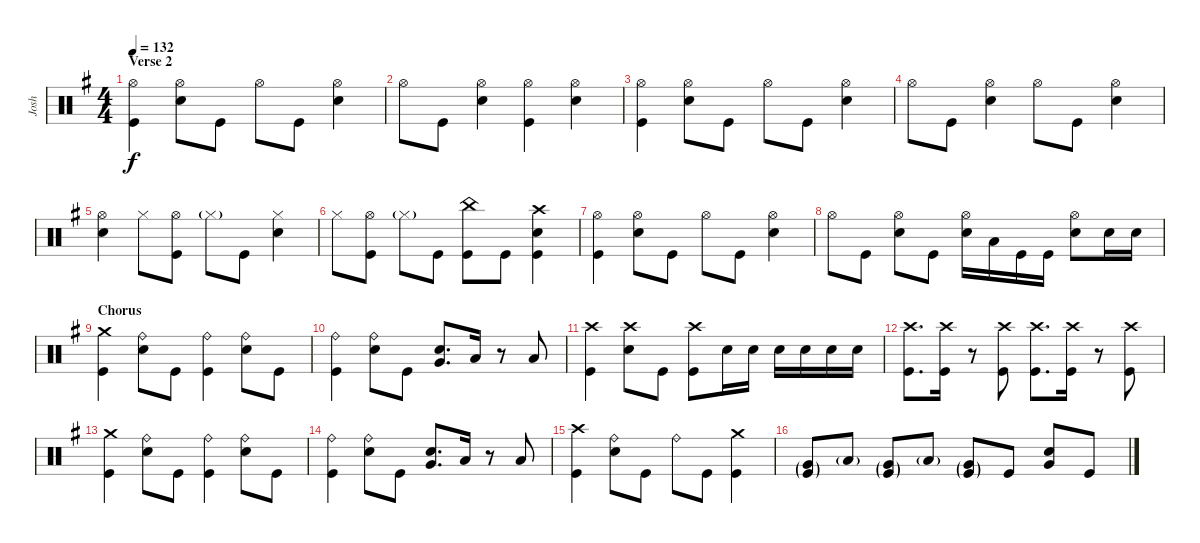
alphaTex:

\track ("Josh" "Josh") {instrument percussion}
\staff {score}
\articulation defaults
\ts (4 4)
\section ("" "Verse 2")
\tempo 132
\clef neutral
\ks g
("Kick (hit)" "Hi-Hat (open)").4{dy f} ("Snare (hit) 2" "Hi-Hat (open)").8 "Kick (hit)".8 "Hi-Hat (open)".8 "Kick (hit)".8 ("Hi-Hat (open)" "Snare (hit) 2").4 |
"Hi-Hat (open)".8 "Kick (hit)".8 ("Snare (hit) 2" "Hi-Hat (open)").4 ("Kick (hit)" "Hi-Hat (open)").4 ("Snare (hit) 2" "Hi-Hat (open)").4 |
("Kick (hit)" "Hi-Hat (open)").4 ("Snare (hit) 2" "Hi-Hat (open)").8 "Kick (hit)".8 "Hi-Hat (open)".8 "Kick (hit)".8 ("Hi-Hat (open)" "Snare (hit) 2").4 |
"Hi-Hat (open)".8 "Kick (hit)".8 ("Snare (hit) 2" "Hi-Hat (open)").4 "Hi-Hat (open)".8 "Kick (hit)".8 ("Snare (hit) 2" "Hi-Hat (open)").4 |
("Hi-Hat (open)" "Snare (hit) 2").4 "Hi-Hat (closed)".8 ("Kick (hit)" "Hi-Hat (open)").8 "Hi-Hat (closed)"{g}.8 "Kick (hit)".8 ("Hi-Hat (closed)" "Snare (hit) 2").4 |
"Hi-Hat (closed)".8 ("Kick (hit)" "Hi-Hat (open)").8 "Hi-Hat (closed)"{g}.8 "Kick (hit)".8 ("Kick (hit)" "China (hit)").8 "Kick (hit)".8 ("Kick (hit)" "Snare (hit) 2" "Crash high (hit)").4 |
("Kick (hit)" "Hi-Hat (open)").4 ("Snare (hit) 2" "Hi-Hat (open)").8 "Kick (hit)".8 "Hi-Hat (open)".8 "Kick (hit)".8 ("Hi-Hat (open)" "Snare (hit) 2").4 |
"Hi-Hat (open)".8 "Kick (hit)".8 ("Snare (hit) 2" "Hi-Hat (open)").8 "Kick (hit)".8 ("Hi-Hat (open)" "Snare (hit) 2").16 "Low Tom (hit)".16 "Kick (hit)".16 "Kick (hit)".16 ("Snare (hit) 2" "Hi-Hat (open)").8 "Snare (hit) 2".16 "Snare (hit) 2".16 |
\section ("" "Chorus")
("Kick (hit)" "Crash medium (hit)").4 ("Snare (hit) 2" "Ride (bell)").8 "Kick (hit)".8 ("Kick (hit)" "Ride (bell)").4 ("Snare (hit) 2" "Ride (bell)").8 "Kick (hit)".8 |
("Kick (hit)" "Ride (bell)").4 ("Snare (hit) 2" "Ride (bell)").8 "Kick (hit)".8 ("Snare (hit) 2" "Very Low Tom (hit)").8{d} "Low Tom (hit)".16 r.8 "Low Floor Tom (hit)".8 |
("Kick (hit)" "Crash high (hit)").4 ("Snare (hit) 2" "Crash high (hit)").8 "Kick (hit)".8 ("Kick (hit)" "Crash high (hit)").8 "Snare (hit) 2".16 "Snare (hit) 2".16 "Snare (hit) 2".16 "Snare (hit) 2".16 "Snare (hit) 2".16 "Snare (hit) 2".16 |
("Kick (hit)" "Crash high (hit)").8{d} ("Kick (hit)" "Crash high (hit)").16 r.8 ("Kick (hit)" "Crash high (hit)").8 ("Kick (hit)" "Crash high (hit)").8{d} ("Kick (hit)" "Crash high (hit)").16 r.8 ("Kick (hit)" "Crash high (hit)").8 |
("Kick (hit)" "Crash medium (hit)").4 ("Snare (hit) 2" "Ride (bell)").8 "Kick (hit)".8 ("Kick (hit)" "Ride (bell)").4 ("Snare (hit) 2" "Ride (bell)").8 "Kick (hit)".8 |
("Kick (hit)" "Ride (bell)").4 ("Snare (hit) 2" "Ride (bell)").8 "Kick (hit)".8 ("Snare (hit) 2" "Very Low Tom (hit)").8{d} "Low Tom (hit)".16 r.8 "Low Floor Tom (hit)".8 |
("Kick (hit)" "Crash high (hit)").4 ("Snare (hit) 2" "Ride (bell)").8 "Kick (hit)".8 "Ride (bell)".8 "Kick (hit)".8 ("Kick (hit)" "Crash medium (hit)").4 |
("Kick (hit)"{g} "Very Low Tom (hit)"{g}).8 "Low Floor Tom (hit)"{g}.8 ("Very Low Tom (hit)"{g} "Kick (hit)"{g}).8 "Low Floor Tom (hit)"{g}.8 ("Kick (hit)"{g} "Very Low Tom (hit)"{g}).8 "Kick (hit)".8 ("Snare (hit) 2" "Very Low Tom (hit)").8 "Kick (hit)".8
